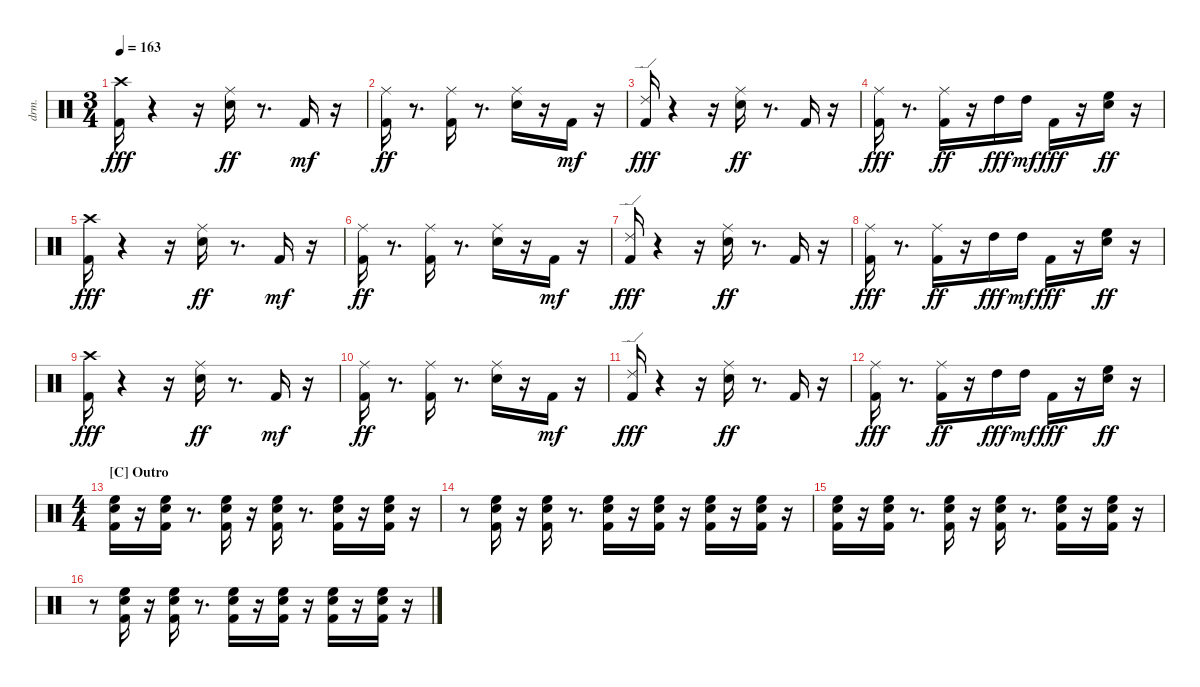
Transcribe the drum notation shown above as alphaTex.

\bracketExtendMode nobrackets
\track ("EZdrummer 3" "drm.") {instrument percussion}
\staff {score}
\articulation defaults
\ts (3 4)
\tempo 163
\clef neutral
\ks aminor
("Kick (hit) 2" "Crash high (hit)"{acc #}).16{dy fff beam Down} r.4{beam Down} r.16{beam Down} ("Snare (hit) 2" "Ride (middle)"{acc #}).16{dy ff beam Down} r.8{d beam Down} "Kick (hit) 2".16{dy mf beam Up} r.16{beam Down} |
("Kick (hit) 2" "Ride (middle)"{acc #}).16{dy ff beam Down} r.8{d beam Down} ("Kick (hit) 2" "Ride (middle)"{acc #}).16{beam Down} r.8{d beam Down} ("Snare (hit) 2" "Ride (middle)"{acc #}).16{beam Down} r.16{beam Down} "Kick (hit) 2".16{dy mf beam Down} r.16{beam Down} |
("Kick (hit) 2" "Ride (edge) 2").16{dy fff beam Up} r.4{beam Down} r.16{beam Down} ("Snare (hit) 2" "Ride (middle)"{acc #}).16{dy ff beam Down} r.8{d beam Down} "Kick (hit) 2".16{beam Up} r.16{beam Down} |
("Kick (hit) 2" "Ride (middle)"{acc #}).16{dy fff beam Down} r.8{d beam Down} ("Kick (hit) 2" "Ride (middle)"{acc #}).16{dy ff beam Down} r.16{beam Down} "High Tom (hit)".16{dy fff beam Down} "High Tom (hit)".16{dy mf beam Down} "Kick (hit) 2".16{dy fff beam Down} r.16{beam Down} ("Snare (hit) 2" "High Floor Tom (hit)").16{dy ff beam Down} r.16{beam Down} |
("Kick (hit) 2" "Crash high (hit)"{acc #}).16{dy fff beam Down} r.4{beam Down} r.16{beam Down} ("Snare (hit) 2" "Ride (middle)"{acc #}).16{dy ff beam Down} r.8{d beam Down} "Kick (hit) 2".16{dy mf beam Up} r.16{beam Down} |
("Kick (hit) 2" "Ride (middle)"{acc #}).16{dy ff beam Down} r.8{d beam Down} ("Kick (hit) 2" "Ride (middle)"{acc #}).16{beam Down} r.8{d beam Down} ("Snare (hit) 2" "Ride (middle)"{acc #}).16{beam Down} r.16{beam Down} "Kick (hit) 2".16{dy mf beam Down} r.16{beam Down} |
("Kick (hit) 2" "Ride (edge) 2").16{dy fff beam Up} r.4{beam Down} r.16{beam Down} ("Snare (hit) 2" "Ride (middle)"{acc #}).16{dy ff beam Down} r.8{d beam Down} "Kick (hit) 2".16{beam Up} r.16{beam Down} |
("Kick (hit) 2" "Ride (middle)"{acc #}).16{dy fff beam Down} r.8{d beam Down} ("Kick (hit) 2" "Ride (middle)"{acc #}).16{dy ff beam Down} r.16{beam Down} "High Tom (hit)".16{dy fff beam Down} "High Tom (hit)".16{dy mf beam Down} "Kick (hit) 2".16{dy fff beam Down} r.16{beam Down} ("Snare (hit) 2" "High Floor Tom (hit)").16{dy ff beam Down} r.16{beam Down} |
("Kick (hit) 2" "Crash high (hit)"{acc #}).16{dy fff beam Down} r.4{beam Down} r.16{beam Down} ("Snare (hit) 2" "Ride (middle)"{acc #}).16{dy ff beam Down} r.8{d beam Down} "Kick (hit) 2".16{dy mf beam Up} r.16{beam Down} |
("Kick (hit) 2" "Ride (middle)"{acc #}).16{dy ff beam Down} r.8{d beam Down} ("Kick (hit) 2" "Ride (middle)"{acc #}).16{beam Down} r.8{d beam Down} ("Snare (hit) 2" "Ride (middle)"{acc #}).16{beam Down} r.16{beam Down} "Kick (hit) 2".16{dy mf beam Down} r.16{beam Down} |
("Kick (hit) 2" "Ride (edge) 2").16{dy fff beam Up} r.4{beam Down} r.16{beam Down} ("Snare (hit) 2" "Ride (middle)"{acc #}).16{dy ff beam Down} r.8{d beam Down} "Kick (hit) 2".16{beam Up} r.16{beam Down} |
("Kick (hit) 2" "Ride (middle)"{acc #}).16{dy fff beam Down} r.8{d beam Down} ("Kick (hit) 2" "Ride (middle)"{acc #}).16{dy ff beam Down} r.16{beam Down} "High Tom (hit)".16{dy fff beam Down} "High Tom (hit)".16{dy mf beam Down} "Kick (hit) 2".16{dy fff beam Down} r.16{beam Down} ("Snare (hit) 2" "High Floor Tom (hit)").16{dy ff beam Down} r.16{beam Down} |
\ts (4 4)
\section ("C" "Outro")
("Kick (hit) 2" "Snare (hit) 2" "High Floor Tom (hit)").16{beam Down} r.16{beam Down} ("Kick (hit) 2" "Snare (hit) 2" "High Floor Tom (hit)").16{beam Down} r.8{d beam Down} ("Kick (hit) 2" "Snare (hit) 2" "High Floor Tom (hit)").16{beam Down} r.16{beam Down} ("Kick (hit) 2" "Snare (hit) 2" "High Floor Tom (hit)").16{beam Down} r.8{d beam Down} ("Kick (hit) 2" "Snare (hit) 2" "High Floor Tom (hit)").16{beam Down} r.16{beam Down} ("Kick (hit) 2" "Snare (hit) 2" "High Floor Tom (hit)").16{beam Down} r.16{beam Down} |
r.8{beam Down} ("Kick (hit) 2" "Snare (hit) 2" "High Floor Tom (hit)").16{beam Down} r.16{beam Down} ("Kick (hit) 2" "Snare (hit) 2" "High Floor Tom (hit)").16{beam Down} r.8{d beam Down} ("Kick (hit) 2" "Snare (hit) 2" "High Floor Tom (hit)").16{beam Down} r.16{beam Down} ("Kick (hit) 2" "Snare (hit) 2" "High Floor Tom (hit)").16{beam Down} r.16{beam Down} ("Kick (hit) 2" "Snare (hit) 2" "High Floor Tom (hit)").16{beam Down} r.16{beam Down} ("Kick (hit) 2" "Snare (hit) 2" "High Floor Tom (hit)").16{beam Down} r.16{beam Down} |
("Kick (hit) 2" "Snare (hit) 2" "High Floor Tom (hit)").16{beam Down} r.16{beam Down} ("Kick (hit) 2" "Snare (hit) 2" "High Floor Tom (hit)").16{beam Down} r.8{d beam Down} ("Kick (hit) 2" "Snare (hit) 2" "High Floor Tom (hit)").16{beam Down} r.16{beam Down} ("Kick (hit) 2" "Snare (hit) 2" "High Floor Tom (hit)").16{beam Down} r.8{d beam Down} ("Kick (hit) 2" "Snare (hit) 2" "High Floor Tom (hit)").16{beam Down} r.16{beam Down} ("Kick (hit) 2" "Snare (hit) 2" "High Floor Tom (hit)").16{beam Down} r.16{beam Down} |
r.8{beam Down} ("Kick (hit) 2" "Snare (hit) 2" "High Floor Tom (hit)").16{beam Down} r.16{beam Down} ("Kick (hit) 2" "Snare (hit) 2" "High Floor Tom (hit)").16{beam Down} r.8{d beam Down} ("Kick (hit) 2" "Snare (hit) 2" "High Floor Tom (hit)").16{beam Down} r.16{beam Down} ("Kick (hit) 2" "Snare (hit) 2" "High Floor Tom (hit)").16{beam Down} r.16{beam Down} ("Kick (hit) 2" "Snare (hit) 2" "High Floor Tom (hit)").16{beam Down} r.16{beam Down} ("Kick (hit) 2" "Snare (hit) 2" "High Floor Tom (hit)").16{beam Down} r.16{beam Down}
